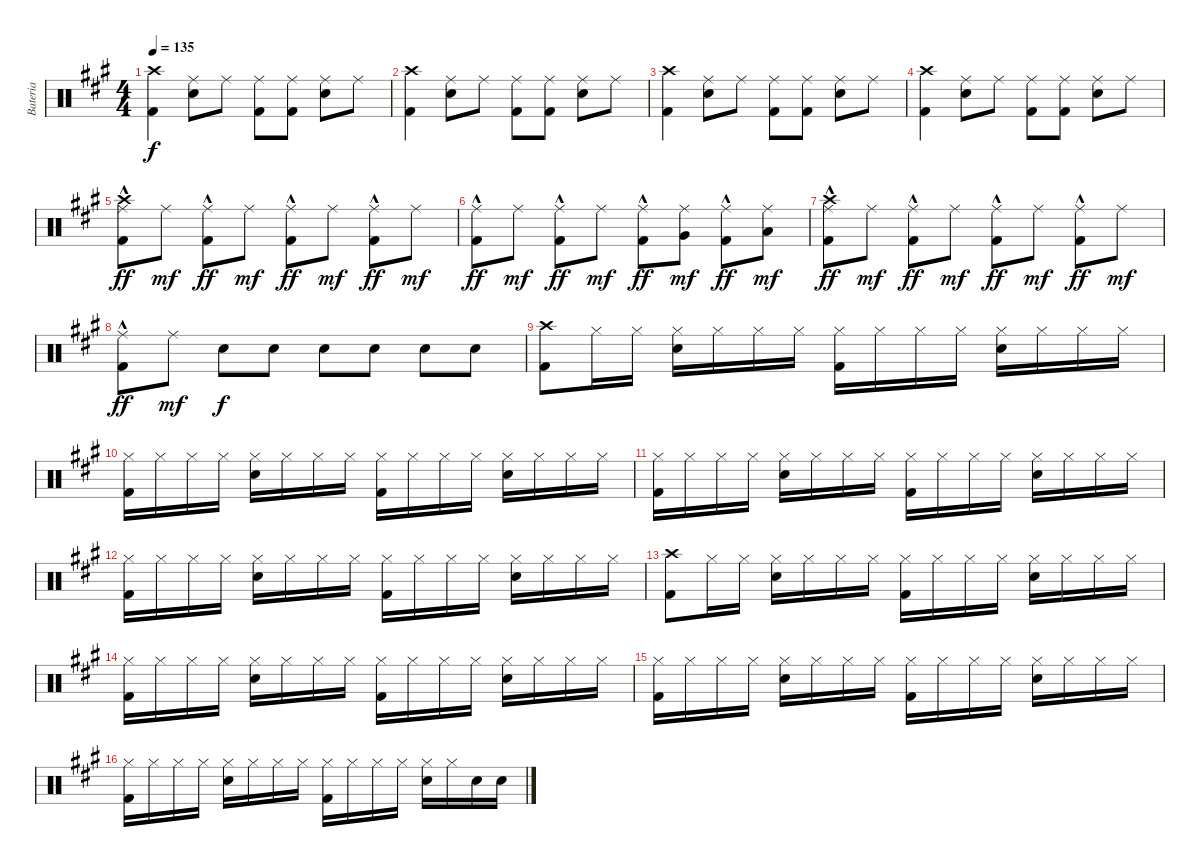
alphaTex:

\track ("Bateria" "Bateria") {instrument percussion}
\staff {score}
\articulation defaults
\ts (4 4)
\tempo 135
\clef neutral
\ks a
("Kick (hit) 2" "Crash high (hit)").4{dy f} ("Electric Snare (hit)" "Ride (middle)").8 "Ride (middle)".8 ("Ride (middle)" "Kick (hit) 2").8 ("Ride (middle)" "Kick (hit) 2").8 ("Ride (middle)" "Electric Snare (hit)").8 "Ride (middle)".8 |
("Kick (hit) 2" "Crash high (hit)").4 ("Electric Snare (hit)" "Ride (middle)").8 "Ride (middle)".8 ("Ride (middle)" "Kick (hit) 2").8 ("Ride (middle)" "Kick (hit) 2").8 ("Ride (middle)" "Electric Snare (hit)").8 "Ride (middle)".8 |
("Kick (hit) 2" "Crash high (hit)").4 ("Electric Snare (hit)" "Ride (middle)").8 "Ride (middle)".8 ("Ride (middle)" "Kick (hit) 2").8 ("Ride (middle)" "Kick (hit) 2").8 ("Ride (middle)" "Electric Snare (hit)").8 "Ride (middle)".8 |
("Kick (hit) 2" "Crash high (hit)").4 ("Electric Snare (hit)" "Ride (middle)").8 "Ride (middle)".8 ("Ride (middle)" "Kick (hit) 2").8 ("Ride (middle)" "Kick (hit) 2").8 ("Ride (middle)" "Electric Snare (hit)").8 "Ride (middle)".8 |
("Crash high (hit)" "Ride (middle)"{hac} "Kick (hit) 2"{hac}).8{dy ff} "Ride (middle)".8{dy mf} ("Ride (middle)"{hac} "Kick (hit) 2"{hac}).8{dy ff} "Ride (middle)".8{dy mf} ("Ride (middle)"{hac} "Kick (hit) 2"{hac}).8{dy ff} "Ride (middle)".8{dy mf} ("Ride (middle)"{hac} "Kick (hit) 2"{hac}).8{dy ff} "Ride (middle)".8{dy mf} |
("Ride (middle)"{hac} "Kick (hit) 2"{hac}).8{dy ff} "Ride (middle)".8{dy mf} ("Ride (middle)"{hac} "Kick (hit) 2"{hac}).8{dy ff} "Ride (middle)".8{dy mf} ("Ride (middle)"{hac} "Kick (hit) 2"{hac}).8{dy ff} ("Very Low Tom (hit)" "Ride (middle)").8{dy mf} ("Ride (middle)"{hac} "Kick (hit) 2"{hac}).8{dy ff} ("Low Floor Tom (hit)" "Ride (middle)").8{dy mf} |
("Crash high (hit)" "Ride (middle)"{hac} "Kick (hit) 2"{hac}).8{dy ff} "Ride (middle)".8{dy mf} ("Ride (middle)"{hac} "Kick (hit) 2"{hac}).8{dy ff} "Ride (middle)".8{dy mf} ("Ride (middle)"{hac} "Kick (hit) 2"{hac}).8{dy ff} "Ride (middle)".8{dy mf} ("Ride (middle)"{hac} "Kick (hit) 2"{hac}).8{dy ff} "Ride (middle)".8{dy mf} |
("Ride (middle)"{hac} "Kick (hit) 2"{hac}).8{dy ff} "Ride (middle)".8{dy mf} "Electric Snare (hit)".8{dy f} "Electric Snare (hit)".8 "Electric Snare (hit)".8 "Electric Snare (hit)".8 "Electric Snare (hit)".8 "Electric Snare (hit)".8 |
("Kick (hit) 2" "Crash high (hit)").8 "Hi-Hat (closed)".16 "Hi-Hat (closed)".16 ("Electric Snare (hit)" "Hi-Hat (closed)").16 "Hi-Hat (closed)".16 "Hi-Hat (closed)".16 "Hi-Hat (closed)".16 ("Kick (hit) 2" "Hi-Hat (closed)").16 "Hi-Hat (closed)".16 "Hi-Hat (closed)".16 "Hi-Hat (closed)".16 ("Hi-Hat (closed)" "Electric Snare (hit)").16 "Hi-Hat (closed)".16 "Hi-Hat (closed)".16 "Hi-Hat (closed)".16 |
("Hi-Hat (closed)" "Kick (hit) 2").16 "Hi-Hat (closed)".16 "Hi-Hat (closed)".16 "Hi-Hat (closed)".16 ("Electric Snare (hit)" "Hi-Hat (closed)").16 "Hi-Hat (closed)".16 "Hi-Hat (closed)".16 "Hi-Hat (closed)".16 ("Kick (hit) 2" "Hi-Hat (closed)").16 "Hi-Hat (closed)".16 "Hi-Hat (closed)".16 "Hi-Hat (closed)".16 ("Hi-Hat (closed)" "Electric Snare (hit)").16 "Hi-Hat (closed)".16 "Hi-Hat (closed)".16 "Hi-Hat (closed)".16 |
("Hi-Hat (closed)" "Kick (hit) 2").16 "Hi-Hat (closed)".16 "Hi-Hat (closed)".16 "Hi-Hat (closed)".16 ("Electric Snare (hit)" "Hi-Hat (closed)").16 "Hi-Hat (closed)".16 "Hi-Hat (closed)".16 "Hi-Hat (closed)".16 ("Kick (hit) 2" "Hi-Hat (closed)").16 "Hi-Hat (closed)".16 "Hi-Hat (closed)".16 "Hi-Hat (closed)".16 ("Hi-Hat (closed)" "Electric Snare (hit)").16 "Hi-Hat (closed)".16 "Hi-Hat (closed)".16 "Hi-Hat (closed)".16 |
("Hi-Hat (closed)" "Kick (hit) 2").16 "Hi-Hat (closed)".16 "Hi-Hat (closed)".16 "Hi-Hat (closed)".16 ("Electric Snare (hit)" "Hi-Hat (closed)").16 "Hi-Hat (closed)".16 "Hi-Hat (closed)".16 "Hi-Hat (closed)".16 ("Kick (hit) 2" "Hi-Hat (closed)").16 "Hi-Hat (closed)".16 "Hi-Hat (closed)".16 "Hi-Hat (closed)".16 ("Hi-Hat (closed)" "Electric Snare (hit)").16 "Hi-Hat (closed)".16 "Hi-Hat (closed)".16 "Hi-Hat (closed)".16 |
("Kick (hit) 2" "Crash high (hit)").8 "Hi-Hat (closed)".16 "Hi-Hat (closed)".16 ("Electric Snare (hit)" "Hi-Hat (closed)").16 "Hi-Hat (closed)".16 "Hi-Hat (closed)".16 "Hi-Hat (closed)".16 ("Kick (hit) 2" "Hi-Hat (closed)").16 "Hi-Hat (closed)".16 "Hi-Hat (closed)".16 "Hi-Hat (closed)".16 ("Hi-Hat (closed)" "Electric Snare (hit)").16 "Hi-Hat (closed)".16 "Hi-Hat (closed)".16 "Hi-Hat (closed)".16 |
("Hi-Hat (closed)" "Kick (hit) 2").16 "Hi-Hat (closed)".16 "Hi-Hat (closed)".16 "Hi-Hat (closed)".16 ("Electric Snare (hit)" "Hi-Hat (closed)").16 "Hi-Hat (closed)".16 "Hi-Hat (closed)".16 "Hi-Hat (closed)".16 ("Kick (hit) 2" "Hi-Hat (closed)").16 "Hi-Hat (closed)".16 "Hi-Hat (closed)".16 "Hi-Hat (closed)".16 ("Hi-Hat (closed)" "Electric Snare (hit)").16 "Hi-Hat (closed)".16 "Hi-Hat (closed)".16 "Hi-Hat (closed)".16 |
("Hi-Hat (closed)" "Kick (hit) 2").16 "Hi-Hat (closed)".16 "Hi-Hat (closed)".16 "Hi-Hat (closed)".16 ("Electric Snare (hit)" "Hi-Hat (closed)").16 "Hi-Hat (closed)".16 "Hi-Hat (closed)".16 "Hi-Hat (closed)".16 ("Kick (hit) 2" "Hi-Hat (closed)").16 "Hi-Hat (closed)".16 "Hi-Hat (closed)".16 "Hi-Hat (closed)".16 ("Hi-Hat (closed)" "Electric Snare (hit)").16 "Hi-Hat (closed)".16 "Hi-Hat (closed)".16 "Hi-Hat (closed)".16 |
("Hi-Hat (closed)" "Kick (hit) 2").16 "Hi-Hat (closed)".16 "Hi-Hat (closed)".16 "Hi-Hat (closed)".16 ("Electric Snare (hit)" "Hi-Hat (closed)").16 "Hi-Hat (closed)".16 "Hi-Hat (closed)".16 "Hi-Hat (closed)".16 ("Kick (hit) 2" "Hi-Hat (closed)").16 "Hi-Hat (closed)".16 "Hi-Hat (closed)".16 "Hi-Hat (closed)".16 ("Hi-Hat (closed)" "Electric Snare (hit)").16 "Hi-Hat (closed)".16 "Electric Snare (hit)".16 "Electric Snare (hit)".16
